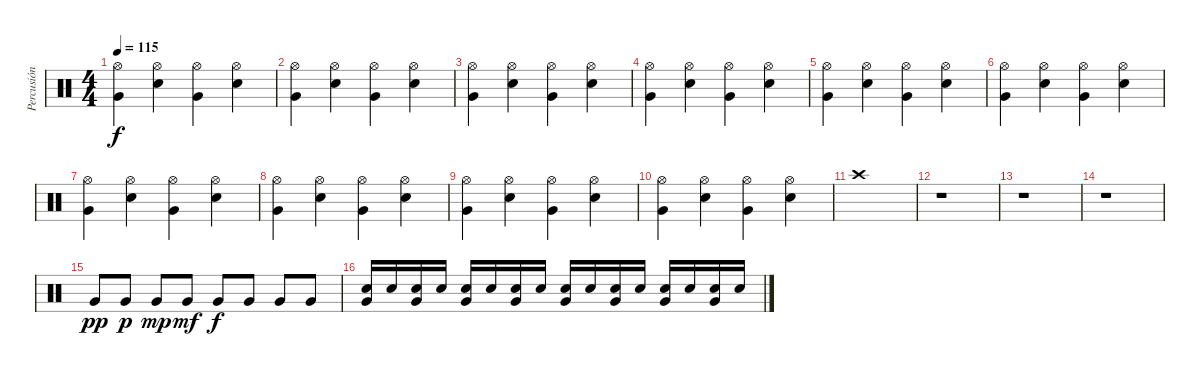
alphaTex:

\track ("Percusión" "Percusión") {instrument percussion}
\staff {score}
\articulation defaults
\ts (4 4)
\tempo 115
\clef neutral
\ks c
("Hi-Hat (open)" "Very Low Tom (hit)").4{dy f} ("Hi-Hat (open)" "Electric Snare (hit)").4 ("Hi-Hat (open)" "Very Low Tom (hit)").4 ("Hi-Hat (open)" "Electric Snare (hit)").4 |
("Hi-Hat (open)" "Very Low Tom (hit)").4 ("Hi-Hat (open)" "Electric Snare (hit)").4 ("Hi-Hat (open)" "Very Low Tom (hit)").4 ("Hi-Hat (open)" "Electric Snare (hit)").4 |
("Hi-Hat (open)" "Very Low Tom (hit)").4 ("Hi-Hat (open)" "Electric Snare (hit)").4 ("Hi-Hat (open)" "Very Low Tom (hit)").4 ("Hi-Hat (open)" "Electric Snare (hit)").4 |
("Hi-Hat (open)" "Very Low Tom (hit)").4 ("Hi-Hat (open)" "Electric Snare (hit)").4 ("Hi-Hat (open)" "Very Low Tom (hit)").4 ("Hi-Hat (open)" "Electric Snare (hit)").4 |
("Hi-Hat (open)" "Very Low Tom (hit)").4 ("Hi-Hat (open)" "Electric Snare (hit)").4 ("Hi-Hat (open)" "Very Low Tom (hit)").4 ("Hi-Hat (open)" "Electric Snare (hit)").4 |
("Hi-Hat (open)" "Very Low Tom (hit)").4 ("Hi-Hat (open)" "Electric Snare (hit)").4 ("Hi-Hat (open)" "Very Low Tom (hit)").4 ("Hi-Hat (open)" "Electric Snare (hit)").4 |
("Hi-Hat (open)" "Very Low Tom (hit)").4 ("Hi-Hat (open)" "Electric Snare (hit)").4 ("Hi-Hat (open)" "Very Low Tom (hit)").4 ("Hi-Hat (open)" "Electric Snare (hit)").4 |
("Hi-Hat (open)" "Very Low Tom (hit)").4 ("Hi-Hat (open)" "Electric Snare (hit)").4 ("Hi-Hat (open)" "Very Low Tom (hit)").4 ("Hi-Hat (open)" "Electric Snare (hit)").4 |
("Hi-Hat (open)" "Very Low Tom (hit)").4 ("Hi-Hat (open)" "Electric Snare (hit)").4 ("Hi-Hat (open)" "Very Low Tom (hit)").4 ("Hi-Hat (open)" "Electric Snare (hit)").4 |
("Hi-Hat (open)" "Very Low Tom (hit)").4 ("Hi-Hat (open)" "Electric Snare (hit)").4 ("Hi-Hat (open)" "Very Low Tom (hit)").4 ("Hi-Hat (open)" "Electric Snare (hit)").4 |
"Crash high (hit)".1 |
r.1 |
r.1 |
r.1 |
"Very Low Tom (hit)".8{dy pp} "Very Low Tom (hit)".8{dy p} "Very Low Tom (hit)".8{dy mp} "Very Low Tom (hit)".8{dy mf} "Very Low Tom (hit)".8{dy f} "Very Low Tom (hit)".8 "Very Low Tom (hit)".8 "Very Low Tom (hit)".8 |
("Electric Snare (hit)" "Very Low Tom (hit)").16 "Electric Snare (hit)".16 ("Electric Snare (hit)" "Very Low Tom (hit)").16 "Electric Snare (hit)".16 ("Electric Snare (hit)" "Very Low Tom (hit)").16 "Electric Snare (hit)".16 ("Electric Snare (hit)" "Very Low Tom (hit)").16 "Electric Snare (hit)".16 ("Electric Snare (hit)" "Very Low Tom (hit)").16 "Electric Snare (hit)".16 ("Electric Snare (hit)" "Very Low Tom (hit)").16 "Electric Snare (hit)".16 ("Electric Snare (hit)" "Very Low Tom (hit)").16 "Electric Snare (hit)".16 ("Electric Snare (hit)" "Very Low Tom (hit)").16 "Electric Snare (hit)".16
